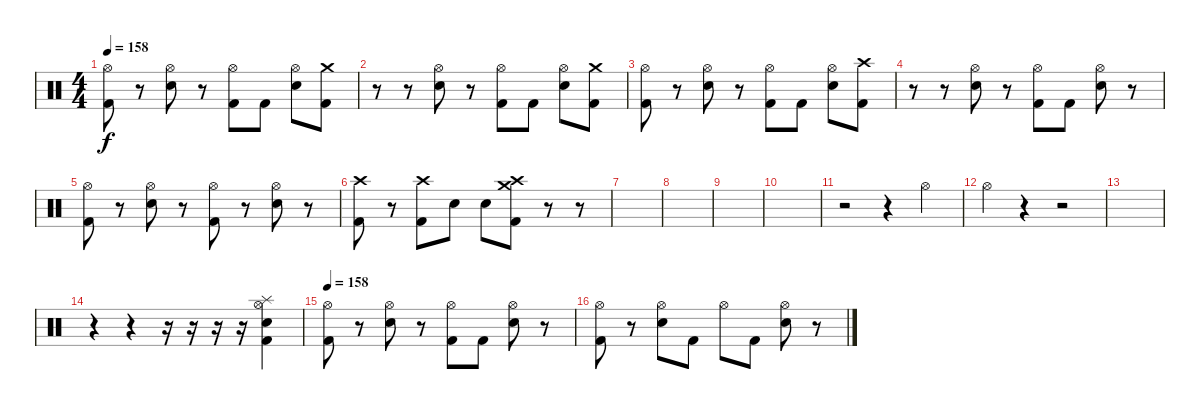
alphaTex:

\track "" {instrument percussion}
\staff {score}
\articulation defaults
\ts (4 4)
\tempo 158
\clef neutral
\ks c
("Hi-Hat (open)" "Kick (hit) 2").8{dy f} r.8 ("Hi-Hat (open)" "Electric Snare (hit)").8 r.8 ("Hi-Hat (open)" "Kick (hit) 2").8 "Kick (hit) 2".8 ("Hi-Hat (open)" "Electric Snare (hit)").8 ("Crash medium (hit)" "Kick (hit) 2").8 |
r.8 r.8 ("Hi-Hat (open)" "Electric Snare (hit)").8 r.8 ("Hi-Hat (open)" "Kick (hit) 2").8 "Kick (hit) 2".8 ("Hi-Hat (open)" "Electric Snare (hit)").8 ("Crash medium (hit)" "Kick (hit) 2").8 |
("Hi-Hat (open)" "Kick (hit) 2").8 r.8 ("Hi-Hat (open)" "Electric Snare (hit)").8 r.8 ("Hi-Hat (open)" "Kick (hit) 2").8 "Kick (hit) 2".8 ("Hi-Hat (open)" "Electric Snare (hit)").8 ("Crash high (hit)" "Kick (hit) 2").8 |
r.8 r.8 ("Hi-Hat (open)" "Electric Snare (hit)").8 r.8 ("Hi-Hat (open)" "Kick (hit) 2").8 "Kick (hit) 2".8 ("Hi-Hat (open)" "Electric Snare (hit)").8 r.8 |
("Hi-Hat (open)" "Kick (hit) 2").8 r.8 ("Hi-Hat (open)" "Electric Snare (hit)").8 r.8 ("Hi-Hat (open)" "Kick (hit) 2").8 r.8 ("Hi-Hat (open)" "Electric Snare (hit)").8 r.8 |
("Crash high (hit)" "Kick (hit) 2").8 r.8 ("Crash high (hit)" "Kick (hit) 2").8 "Electric Snare (hit)".8 "Electric Snare (hit)".8 ("Crash high (hit)" "Crash medium (hit)" "Kick (hit) 2").8 r.8 r.8 |
|
|
|
|
r.2 r.4 "Hi-Hat (open)".4 |
"Hi-Hat (open)".4 r.4 r.2 |
|
\section ("" "")
r.4 r.4 r.16 r.16 r.16 r.16 ("Hi-Hat (open)" "Splash (hit)" "Snare (hit) 2" "Kick (hit) 2").4 |
\tempo 158
("Hi-Hat (open)" "Kick (hit) 2").8 r.8 ("Hi-Hat (open)" "Electric Snare (hit)").8 r.8 ("Hi-Hat (open)" "Kick (hit) 2").8 "Kick (hit) 2".8 ("Hi-Hat (open)" "Electric Snare (hit)").8 r.8 |
("Hi-Hat (open)" "Kick (hit) 2").8 r.8 ("Hi-Hat (open)" "Electric Snare (hit)").8 "Kick (hit) 2".8 "Hi-Hat (open)".8 "Kick (hit) 2".8 ("Hi-Hat (open)" "Electric Snare (hit)").8 r.8
